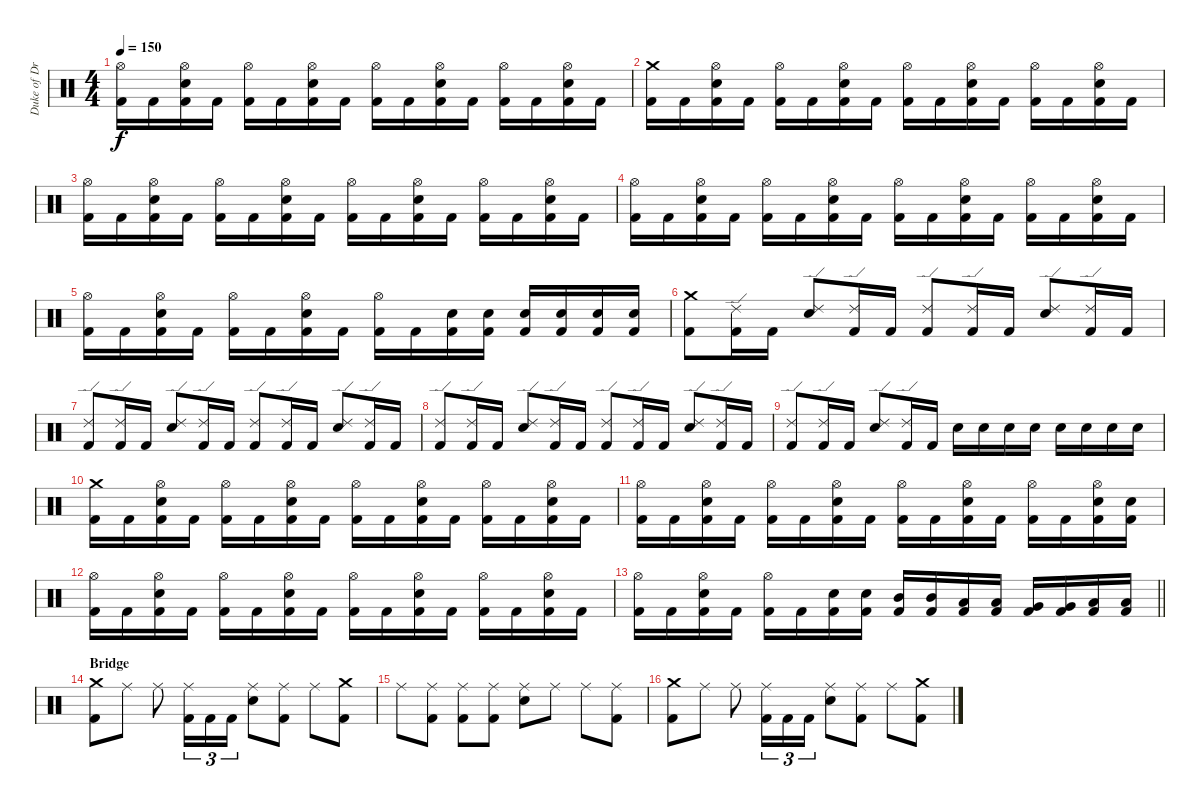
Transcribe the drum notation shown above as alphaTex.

\track ("Duke of Drumington" "Duke of Dr") {instrument percussion}
\staff {score}
\articulation defaults
\ts (4 4)
\tempo 150
\clef neutral
\ks c
("Hi-Hat (open)" "Kick (hit) 2").16{dy f} "Kick (hit) 2".16 ("Hi-Hat (open)" "Electric Snare (hit)" "Kick (hit) 2").16 "Kick (hit) 2".16 ("Hi-Hat (open)" "Kick (hit) 2").16 "Kick (hit) 2".16 ("Hi-Hat (open)" "Electric Snare (hit)" "Kick (hit) 2").16 "Kick (hit) 2".16 ("Hi-Hat (open)" "Kick (hit) 2").16 "Kick (hit) 2".16 ("Hi-Hat (open)" "Electric Snare (hit)" "Kick (hit) 2").16 "Kick (hit) 2".16 ("Hi-Hat (open)" "Kick (hit) 2").16 "Kick (hit) 2".16 ("Hi-Hat (open)" "Electric Snare (hit)" "Kick (hit) 2").16 "Kick (hit) 2".16 |
("Crash medium (hit)" "Kick (hit) 2").16 "Kick (hit) 2".16 ("Hi-Hat (open)" "Electric Snare (hit)" "Kick (hit) 2").16 "Kick (hit) 2".16 ("Hi-Hat (open)" "Kick (hit) 2").16 "Kick (hit) 2".16 ("Hi-Hat (open)" "Electric Snare (hit)" "Kick (hit) 2").16 "Kick (hit) 2".16 ("Hi-Hat (open)" "Kick (hit) 2").16 "Kick (hit) 2".16 ("Hi-Hat (open)" "Electric Snare (hit)" "Kick (hit) 2").16 "Kick (hit) 2".16 ("Hi-Hat (open)" "Kick (hit) 2").16 "Kick (hit) 2".16 ("Hi-Hat (open)" "Electric Snare (hit)" "Kick (hit) 2").16 "Kick (hit) 2".16 |
("Hi-Hat (open)" "Kick (hit) 2").16 "Kick (hit) 2".16 ("Hi-Hat (open)" "Electric Snare (hit)" "Kick (hit) 2").16 "Kick (hit) 2".16 ("Hi-Hat (open)" "Kick (hit) 2").16 "Kick (hit) 2".16 ("Hi-Hat (open)" "Electric Snare (hit)" "Kick (hit) 2").16 "Kick (hit) 2".16 ("Hi-Hat (open)" "Kick (hit) 2").16 "Kick (hit) 2".16 ("Hi-Hat (open)" "Electric Snare (hit)" "Kick (hit) 2").16 "Kick (hit) 2".16 ("Hi-Hat (open)" "Kick (hit) 2").16 "Kick (hit) 2".16 ("Hi-Hat (open)" "Electric Snare (hit)" "Kick (hit) 2").16 "Kick (hit) 2".16 |
("Hi-Hat (open)" "Kick (hit) 2").16 "Kick (hit) 2".16 ("Hi-Hat (open)" "Electric Snare (hit)" "Kick (hit) 2").16 "Kick (hit) 2".16 ("Hi-Hat (open)" "Kick (hit) 2").16 "Kick (hit) 2".16 ("Hi-Hat (open)" "Electric Snare (hit)" "Kick (hit) 2").16 "Kick (hit) 2".16 ("Hi-Hat (open)" "Kick (hit) 2").16 "Kick (hit) 2".16 ("Hi-Hat (open)" "Electric Snare (hit)" "Kick (hit) 2").16 "Kick (hit) 2".16 ("Hi-Hat (open)" "Kick (hit) 2").16 "Kick (hit) 2".16 ("Hi-Hat (open)" "Electric Snare (hit)" "Kick (hit) 2").16 "Kick (hit) 2".16 |
("Hi-Hat (open)" "Kick (hit) 2").16 "Kick (hit) 2".16 ("Hi-Hat (open)" "Electric Snare (hit)" "Kick (hit) 2").16 "Kick (hit) 2".16 ("Hi-Hat (open)" "Kick (hit) 2").16 "Kick (hit) 2".16 ("Hi-Hat (open)" "Electric Snare (hit)" "Kick (hit) 2").16 "Kick (hit) 2".16 ("Hi-Hat (open)" "Kick (hit) 2").16 "Kick (hit) 2".16 ("Electric Snare (hit)" "Kick (hit) 2").16 ("Electric Snare (hit)" "Kick (hit) 2").16 ("Electric Snare (hit)" "Kick (hit) 2").16 ("Electric Snare (hit)" "Kick (hit) 2").16 ("Electric Snare (hit)" "Kick (hit) 2").16 ("Electric Snare (hit)" "Kick (hit) 2").16 |
("Crash medium (hit)" "Kick (hit) 2").8 ("Ride (edge) 2" "Kick (hit) 2").16 "Kick (hit) 2".16 ("Ride (edge) 2" "Electric Snare (hit)").8 ("Ride (edge) 2" "Kick (hit) 2").16 "Kick (hit) 2".16 ("Ride (edge) 2" "Kick (hit) 2").8 ("Ride (edge) 2" "Kick (hit) 2").16 "Kick (hit) 2".16 ("Ride (edge) 2" "Electric Snare (hit)").8 ("Ride (edge) 2" "Kick (hit) 2").16 "Kick (hit) 2".16 |
("Ride (edge) 2" "Kick (hit) 2").8 ("Ride (edge) 2" "Kick (hit) 2").16 "Kick (hit) 2".16 ("Ride (edge) 2" "Electric Snare (hit)").8 ("Ride (edge) 2" "Kick (hit) 2").16 "Kick (hit) 2".16 ("Ride (edge) 2" "Kick (hit) 2").8 ("Ride (edge) 2" "Kick (hit) 2").16 "Kick (hit) 2".16 ("Ride (edge) 2" "Electric Snare (hit)").8 ("Ride (edge) 2" "Kick (hit) 2").16 "Kick (hit) 2".16 |
("Ride (edge) 2" "Kick (hit) 2").8 ("Ride (edge) 2" "Kick (hit) 2").16 "Kick (hit) 2".16 ("Ride (edge) 2" "Electric Snare (hit)").8 ("Ride (edge) 2" "Kick (hit) 2").16 "Kick (hit) 2".16 ("Ride (edge) 2" "Kick (hit) 2").8 ("Ride (edge) 2" "Kick (hit) 2").16 "Kick (hit) 2".16 ("Ride (edge) 2" "Electric Snare (hit)").8 ("Ride (edge) 2" "Kick (hit) 2").16 "Kick (hit) 2".16 |
("Ride (edge) 2" "Kick (hit) 2").8 ("Ride (edge) 2" "Kick (hit) 2").16 "Kick (hit) 2".16 ("Ride (edge) 2" "Electric Snare (hit)").8 ("Ride (edge) 2" "Kick (hit) 2").16 "Kick (hit) 2".16 "Electric Snare (hit)".16 "Electric Snare (hit)".16 "Electric Snare (hit)".16 "Electric Snare (hit)".16 "Electric Snare (hit)".16 "Electric Snare (hit)".16 "Electric Snare (hit)".16 "Electric Snare (hit)".16 |
("Crash medium (hit)" "Kick (hit) 2").16 "Kick (hit) 2".16 ("Hi-Hat (open)" "Electric Snare (hit)" "Kick (hit) 2").16 "Kick (hit) 2".16 ("Hi-Hat (open)" "Kick (hit) 2").16 "Kick (hit) 2".16 ("Hi-Hat (open)" "Electric Snare (hit)" "Kick (hit) 2").16 "Kick (hit) 2".16 ("Hi-Hat (open)" "Kick (hit) 2").16 "Kick (hit) 2".16 ("Hi-Hat (open)" "Electric Snare (hit)" "Kick (hit) 2").16 "Kick (hit) 2".16 ("Hi-Hat (open)" "Kick (hit) 2").16 "Kick (hit) 2".16 ("Hi-Hat (open)" "Electric Snare (hit)" "Kick (hit) 2").16 "Kick (hit) 2".16 |
("Hi-Hat (open)" "Kick (hit) 2").16 "Kick (hit) 2".16 ("Hi-Hat (open)" "Electric Snare (hit)" "Kick (hit) 2").16 "Kick (hit) 2".16 ("Hi-Hat (open)" "Kick (hit) 2").16 "Kick (hit) 2".16 ("Hi-Hat (open)" "Electric Snare (hit)" "Kick (hit) 2").16 "Kick (hit) 2".16 ("Hi-Hat (open)" "Kick (hit) 2").16 "Kick (hit) 2".16 ("Hi-Hat (open)" "Electric Snare (hit)" "Kick (hit) 2").16 "Kick (hit) 2".16 ("Hi-Hat (open)" "Kick (hit) 2").16 "Kick (hit) 2".16 ("Hi-Hat (open)" "Electric Snare (hit)" "Kick (hit) 2").16 ("Electric Snare (hit)" "Kick (hit) 2").16 |
("Hi-Hat (open)" "Kick (hit) 2").16 "Kick (hit) 2".16 ("Hi-Hat (open)" "Electric Snare (hit)" "Kick (hit) 2").16 "Kick (hit) 2".16 ("Hi-Hat (open)" "Kick (hit) 2").16 "Kick (hit) 2".16 ("Hi-Hat (open)" "Electric Snare (hit)" "Kick (hit) 2").16 "Kick (hit) 2".16 ("Hi-Hat (open)" "Kick (hit) 2").16 "Kick (hit) 2".16 ("Hi-Hat (open)" "Electric Snare (hit)" "Kick (hit) 2").16 "Kick (hit) 2".16 ("Hi-Hat (open)" "Kick (hit) 2").16 "Kick (hit) 2".16 ("Hi-Hat (open)" "Electric Snare (hit)" "Kick (hit) 2").16 "Kick (hit) 2".16 |
\barLineRight lightlight
("Hi-Hat (open)" "Kick (hit) 2").16 "Kick (hit) 2".16 ("Hi-Hat (open)" "Electric Snare (hit)" "Kick (hit) 2").16 "Kick (hit) 2".16 ("Hi-Hat (open)" "Kick (hit) 2").16 "Kick (hit) 2".16 ("Electric Snare (hit)" "Kick (hit) 2").16 ("Electric Snare (hit)" "Kick (hit) 2").16 ("Mid Tom (hit)" "Kick (hit) 2").16 ("Mid Tom (hit)" "Kick (hit) 2").16 ("Low Tom (hit)" "Kick (hit) 2").16 ("Low Tom (hit)" "Kick (hit) 2").16 ("Very Low Tom (hit)" "Kick (hit) 2").16 ("Very Low Tom (hit)" "Kick (hit) 2").16 ("Low Floor Tom (hit)" "Kick (hit) 2").16 ("Low Floor Tom (hit)" "Kick (hit) 2").16 |
\section ("" "Bridge")
("Crash medium (hit)" "Kick (hit) 2").8 "Ride (middle)".8 "Ride (middle)".8 ("Ride (middle)" "Kick (hit) 2").16{tu (3 2)} "Kick (hit) 2".16{tu (3 2)} "Kick (hit) 2".16{tu (3 2)} ("Ride (middle)" "Electric Snare (hit)").8 ("Ride (middle)" "Kick (hit) 2").8 "Ride (middle)".8 ("Crash medium (hit)" "Kick (hit) 2").8 |
"Ride (middle)".8 ("Ride (middle)" "Kick (hit) 2").8 ("Ride (middle)" "Kick (hit) 2").8 ("Ride (middle)" "Kick (hit) 2").8 ("Ride (middle)" "Electric Snare (hit)").8 "Ride (middle)".8 "Ride (middle)".8 ("Ride (middle)" "Kick (hit) 2").8 |
("Crash medium (hit)" "Kick (hit) 2").8 "Ride (middle)".8 "Ride (middle)".8 ("Ride (middle)" "Kick (hit) 2").16{tu (3 2)} "Kick (hit) 2".16{tu (3 2)} "Kick (hit) 2".16{tu (3 2)} ("Ride (middle)" "Electric Snare (hit)").8 ("Ride (middle)" "Kick (hit) 2").8 "Ride (middle)".8 ("Crash medium (hit)" "Kick (hit) 2").8
